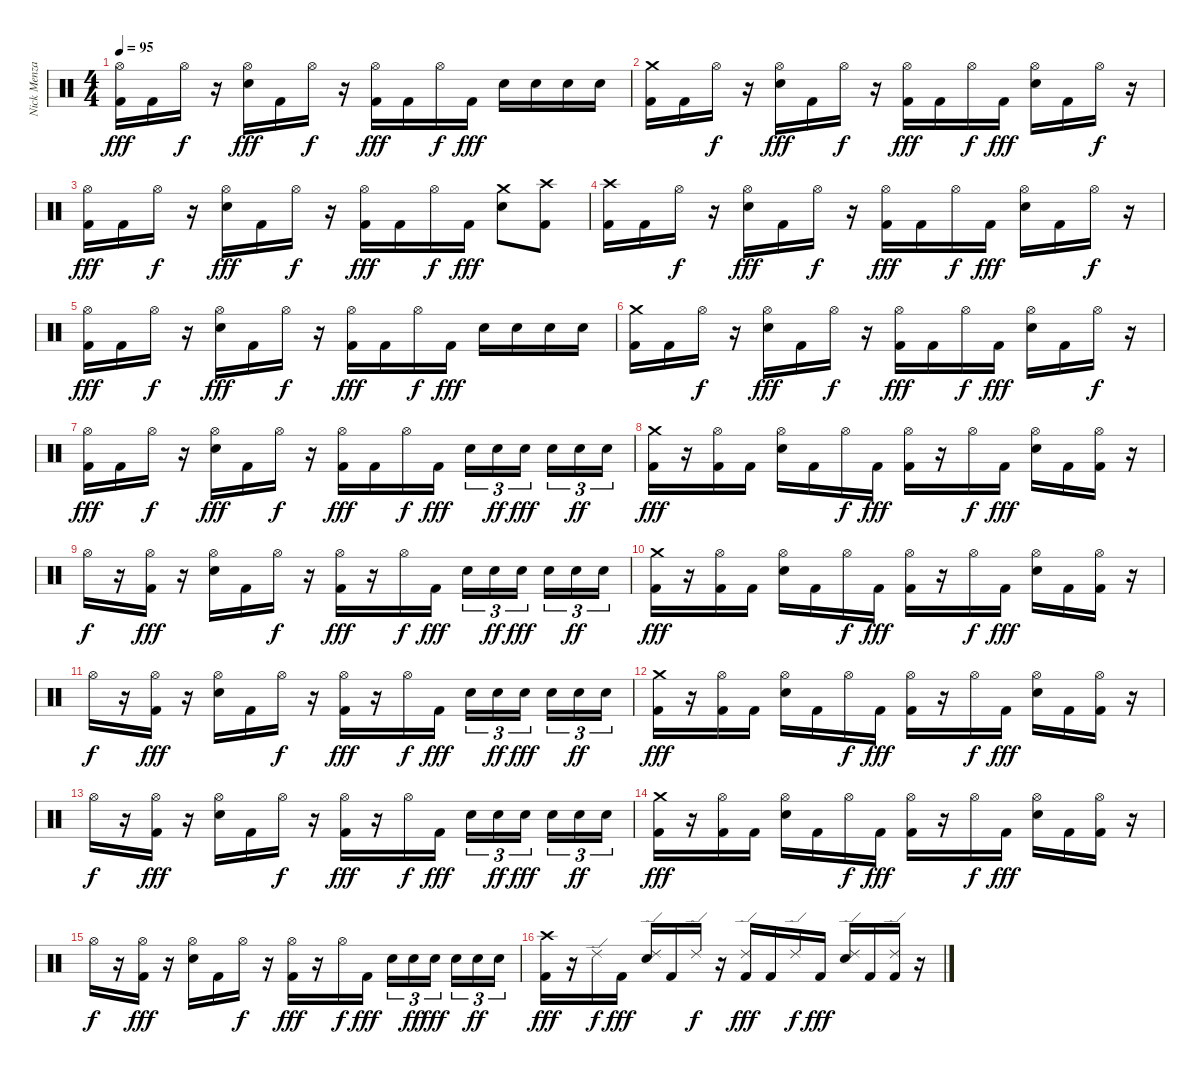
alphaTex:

\track ("Nick Menza" "Nick Menza") {instrument percussion}
\staff {score}
\articulation defaults
\ts (4 4)
\tempo 95
\clef neutral
\ks c
("Kick (hit) 2" "Hi-Hat (open)").16{dy fff} "Kick (hit) 2".16 "Hi-Hat (open)".16{dy f} r.16 ("Electric Snare (hit)" "Hi-Hat (open)").16{dy fff} "Kick (hit) 2".16 "Hi-Hat (open)".16{dy f} r.16 ("Kick (hit) 2" "Hi-Hat (open)").16{dy fff} "Kick (hit) 2".16 "Hi-Hat (open)".16{dy f} "Kick (hit) 2".16{dy fff} "Electric Snare (hit)".16 "Electric Snare (hit)".16 "Electric Snare (hit)".16 "Electric Snare (hit)".16 |
("Kick (hit) 2" "Crash medium (hit)").16 "Kick (hit) 2".16 "Hi-Hat (open)".16{dy f} r.16 ("Electric Snare (hit)" "Hi-Hat (open)").16{dy fff} "Kick (hit) 2".16 "Hi-Hat (open)".16{dy f} r.16 ("Kick (hit) 2" "Hi-Hat (open)").16{dy fff} "Kick (hit) 2".16 "Hi-Hat (open)".16{dy f} "Kick (hit) 2".16{dy fff} ("Electric Snare (hit)" "Hi-Hat (open)").16 "Kick (hit) 2".16 "Hi-Hat (open)".16{dy f} r.16 |
("Kick (hit) 2" "Hi-Hat (open)").16{dy fff} "Kick (hit) 2".16 "Hi-Hat (open)".16{dy f} r.16 ("Electric Snare (hit)" "Hi-Hat (open)").16{dy fff} "Kick (hit) 2".16 "Hi-Hat (open)".16{dy f} r.16 ("Kick (hit) 2" "Hi-Hat (open)").16{dy fff} "Kick (hit) 2".16 "Hi-Hat (open)".16{dy f} "Kick (hit) 2".16{dy fff} ("Electric Snare (hit)" "Crash medium (hit)").8 ("Kick (hit) 2" "Crash high (hit)").8 |
("Kick (hit) 2" "Crash high (hit)").16 "Kick (hit) 2".16 "Hi-Hat (open)".16{dy f} r.16 ("Electric Snare (hit)" "Hi-Hat (open)").16{dy fff} "Kick (hit) 2".16 "Hi-Hat (open)".16{dy f} r.16 ("Kick (hit) 2" "Hi-Hat (open)").16{dy fff} "Kick (hit) 2".16 "Hi-Hat (open)".16{dy f} "Kick (hit) 2".16{dy fff} ("Electric Snare (hit)" "Hi-Hat (open)").16 "Kick (hit) 2".16 "Hi-Hat (open)".16{dy f} r.16 |
("Kick (hit) 2" "Hi-Hat (open)").16{dy fff} "Kick (hit) 2".16 "Hi-Hat (open)".16{dy f} r.16 ("Electric Snare (hit)" "Hi-Hat (open)").16{dy fff} "Kick (hit) 2".16 "Hi-Hat (open)".16{dy f} r.16 ("Kick (hit) 2" "Hi-Hat (open)").16{dy fff} "Kick (hit) 2".16 "Hi-Hat (open)".16{dy f} "Kick (hit) 2".16{dy fff} "Electric Snare (hit)".16 "Electric Snare (hit)".16 "Electric Snare (hit)".16 "Electric Snare (hit)".16 |
("Kick (hit) 2" "Crash medium (hit)").16 "Kick (hit) 2".16 "Hi-Hat (open)".16{dy f} r.16 ("Electric Snare (hit)" "Hi-Hat (open)").16{dy fff} "Kick (hit) 2".16 "Hi-Hat (open)".16{dy f} r.16 ("Kick (hit) 2" "Hi-Hat (open)").16{dy fff} "Kick (hit) 2".16 "Hi-Hat (open)".16{dy f} "Kick (hit) 2".16{dy fff} ("Electric Snare (hit)" "Hi-Hat (open)").16 "Kick (hit) 2".16 "Hi-Hat (open)".16{dy f} r.16 |
("Kick (hit) 2" "Hi-Hat (open)").16{dy fff} "Kick (hit) 2".16 "Hi-Hat (open)".16{dy f} r.16 ("Electric Snare (hit)" "Hi-Hat (open)").16{dy fff} "Kick (hit) 2".16 "Hi-Hat (open)".16{dy f} r.16 ("Kick (hit) 2" "Hi-Hat (open)").16{dy fff} "Kick (hit) 2".16 "Hi-Hat (open)".16{dy f} "Kick (hit) 2".16{dy fff} "Electric Snare (hit)".16{tu (3 2)} "Electric Snare (hit)".16{tu (3 2) dy ff} "Electric Snare (hit)".16{tu (3 2) dy fff} "Electric Snare (hit)".16{tu (3 2)} "Electric Snare (hit)".16{tu (3 2) dy ff} "Electric Snare (hit)".16{tu (3 2)} |
("Kick (hit) 2" "Crash medium (hit)").16{dy fff} r.16 ("Kick (hit) 2" "Hi-Hat (open)").16 "Kick (hit) 2".16 ("Electric Snare (hit)" "Hi-Hat (open)").16 "Kick (hit) 2".16 "Hi-Hat (open)".16{dy f} "Kick (hit) 2".16{dy fff} ("Kick (hit) 2" "Hi-Hat (open)").16 r.16 "Hi-Hat (open)".16{dy f} "Kick (hit) 2".16{dy fff} ("Electric Snare (hit)" "Hi-Hat (open)").16 "Kick (hit) 2".16 ("Kick (hit) 2" "Hi-Hat (open)").16 r.16 |
"Hi-Hat (open)".16{dy f} r.16 ("Kick (hit) 2" "Hi-Hat (open)").16{dy fff} r.16 ("Electric Snare (hit)" "Hi-Hat (open)").16 "Kick (hit) 2".16 "Hi-Hat (open)".16{dy f} r.16 ("Kick (hit) 2" "Hi-Hat (open)").16{dy fff} r.16 "Hi-Hat (open)".16{dy f} "Kick (hit) 2".16{dy fff} "Electric Snare (hit)".16{tu (3 2)} "Electric Snare (hit)".16{tu (3 2) dy ff} "Electric Snare (hit)".16{tu (3 2) dy fff} "Electric Snare (hit)".16{tu (3 2)} "Electric Snare (hit)".16{tu (3 2) dy ff} "Electric Snare (hit)".16{tu (3 2)} |
("Kick (hit) 2" "Crash medium (hit)").16{dy fff} r.16 ("Kick (hit) 2" "Hi-Hat (open)").16 "Kick (hit) 2".16 ("Electric Snare (hit)" "Hi-Hat (open)").16 "Kick (hit) 2".16 "Hi-Hat (open)".16{dy f} "Kick (hit) 2".16{dy fff} ("Kick (hit) 2" "Hi-Hat (open)").16 r.16 "Hi-Hat (open)".16{dy f} "Kick (hit) 2".16{dy fff} ("Electric Snare (hit)" "Hi-Hat (open)").16 "Kick (hit) 2".16 ("Kick (hit) 2" "Hi-Hat (open)").16 r.16 |
"Hi-Hat (open)".16{dy f} r.16 ("Kick (hit) 2" "Hi-Hat (open)").16{dy fff} r.16 ("Electric Snare (hit)" "Hi-Hat (open)").16 "Kick (hit) 2".16 "Hi-Hat (open)".16{dy f} r.16 ("Kick (hit) 2" "Hi-Hat (open)").16{dy fff} r.16 "Hi-Hat (open)".16{dy f} "Kick (hit) 2".16{dy fff} "Electric Snare (hit)".16{tu (3 2)} "Electric Snare (hit)".16{tu (3 2) dy ff} "Electric Snare (hit)".16{tu (3 2) dy fff} "Electric Snare (hit)".16{tu (3 2)} "Electric Snare (hit)".16{tu (3 2) dy ff} "Electric Snare (hit)".16{tu (3 2)} |
("Kick (hit) 2" "Crash medium (hit)").16{dy fff} r.16 ("Kick (hit) 2" "Hi-Hat (open)").16 "Kick (hit) 2".16 ("Electric Snare (hit)" "Hi-Hat (open)").16 "Kick (hit) 2".16 "Hi-Hat (open)".16{dy f} "Kick (hit) 2".16{dy fff} ("Kick (hit) 2" "Hi-Hat (open)").16 r.16 "Hi-Hat (open)".16{dy f} "Kick (hit) 2".16{dy fff} ("Electric Snare (hit)" "Hi-Hat (open)").16 "Kick (hit) 2".16 ("Kick (hit) 2" "Hi-Hat (open)").16 r.16 |
"Hi-Hat (open)".16{dy f} r.16 ("Kick (hit) 2" "Hi-Hat (open)").16{dy fff} r.16 ("Electric Snare (hit)" "Hi-Hat (open)").16 "Kick (hit) 2".16 "Hi-Hat (open)".16{dy f} r.16 ("Kick (hit) 2" "Hi-Hat (open)").16{dy fff} r.16 "Hi-Hat (open)".16{dy f} "Kick (hit) 2".16{dy fff} "Electric Snare (hit)".16{tu (3 2)} "Electric Snare (hit)".16{tu (3 2) dy ff} "Electric Snare (hit)".16{tu (3 2) dy fff} "Electric Snare (hit)".16{tu (3 2)} "Electric Snare (hit)".16{tu (3 2) dy ff} "Electric Snare (hit)".16{tu (3 2)} |
("Kick (hit) 2" "Crash medium (hit)").16{dy fff} r.16 ("Kick (hit) 2" "Hi-Hat (open)").16 "Kick (hit) 2".16 ("Electric Snare (hit)" "Hi-Hat (open)").16 "Kick (hit) 2".16 "Hi-Hat (open)".16{dy f} "Kick (hit) 2".16{dy fff} ("Kick (hit) 2" "Hi-Hat (open)").16 r.16 "Hi-Hat (open)".16{dy f} "Kick (hit) 2".16{dy fff} ("Electric Snare (hit)" "Hi-Hat (open)").16 "Kick (hit) 2".16 ("Kick (hit) 2" "Hi-Hat (open)").16 r.16 |
"Hi-Hat (open)".16{dy f} r.16 ("Kick (hit) 2" "Hi-Hat (open)").16{dy fff} r.16 ("Electric Snare (hit)" "Hi-Hat (open)").16 "Kick (hit) 2".16 "Hi-Hat (open)".16{dy f} r.16 ("Kick (hit) 2" "Hi-Hat (open)").16{dy fff} r.16 "Hi-Hat (open)".16{dy f} "Kick (hit) 2".16{dy fff} "Electric Snare (hit)".16{tu (3 2)} "Electric Snare (hit)".16{tu (3 2) dy ff} "Electric Snare (hit)".16{tu (3 2) dy fff} "Electric Snare (hit)".16{tu (3 2)} "Electric Snare (hit)".16{tu (3 2) dy ff} "Electric Snare (hit)".16{tu (3 2)} |
("Kick (hit) 2" "Crash high (hit)").16{dy fff} r.16 "Ride (edge) 2".16{dy f} "Kick (hit) 2".16{dy fff} ("Electric Snare (hit)" "Ride (edge) 2").16 "Kick (hit) 2".16 "Ride (edge) 2".16{dy f} r.16 ("Kick (hit) 2" "Ride (edge) 2").16{dy fff} "Kick (hit) 2".16 "Ride (edge) 2".16{dy f} "Kick (hit) 2".16{dy fff} ("Electric Snare (hit)" "Ride (edge) 2").16 "Kick (hit) 2".16 ("Kick (hit) 2" "Ride (edge) 2").16 r.16
